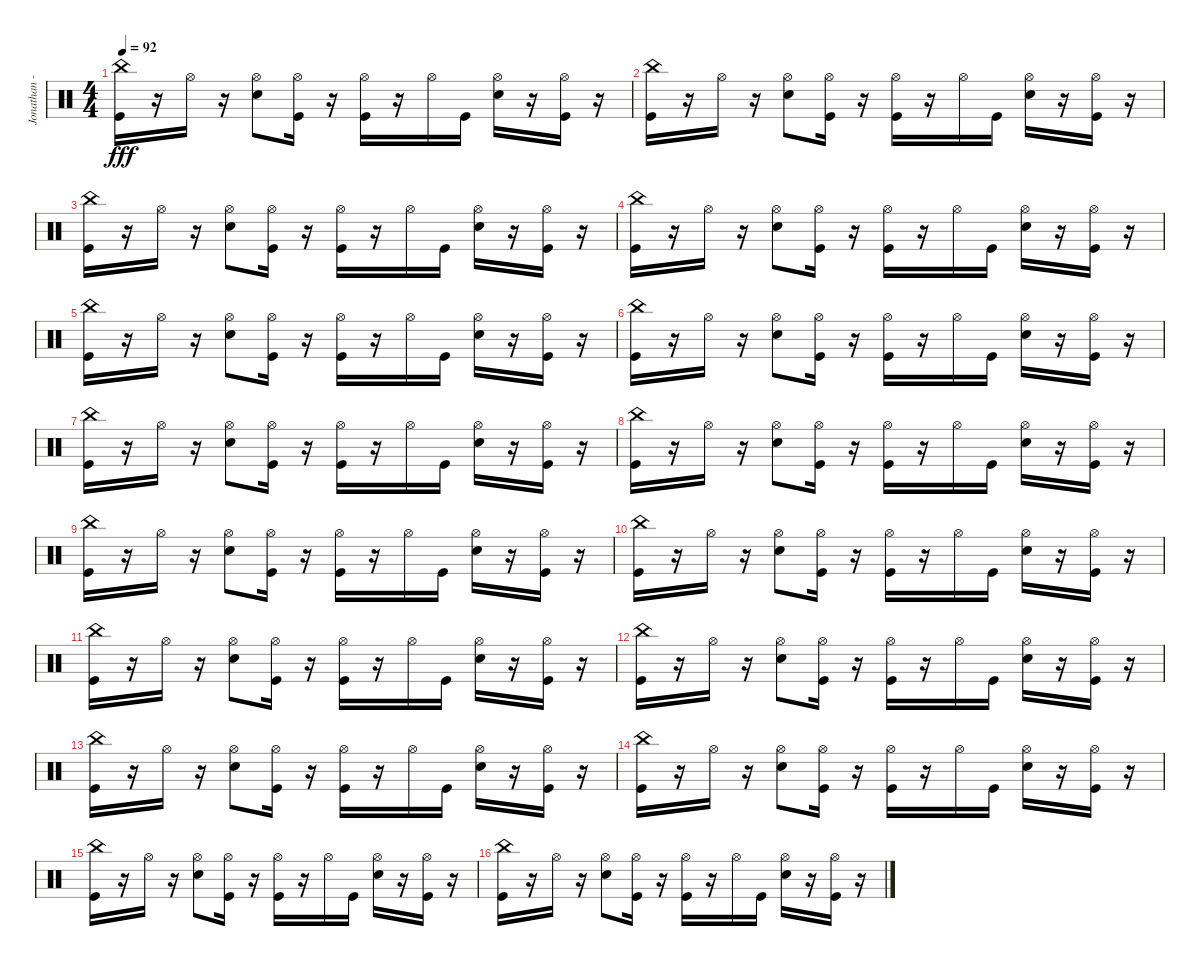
\track ("Jonathan - Drums" "Jonathan -") {instrument percussion}
\staff {score}
\articulation defaults
\ts (4 4)
\tempo 92
\clef neutral
\ks c
("China (hit)" "Kick (hit)").16{dy fff} r.16 "Hi-Hat (open)".16 r.16 ("Hi-Hat (open)" "Electric Snare (hit)").8 ("Hi-Hat (open)" "Kick (hit)").16 r.16 ("Hi-Hat (open)" "Kick (hit)").16 r.16 "Hi-Hat (open)".16 "Kick (hit)".16 ("Hi-Hat (open)" "Electric Snare (hit)").16 r.16 ("Hi-Hat (open)" "Kick (hit)").16 r.16 |
("China (hit)" "Kick (hit)").16 r.16 "Hi-Hat (open)".16 r.16 ("Electric Snare (hit)" "Hi-Hat (open)").8 ("Kick (hit)" "Hi-Hat (open)").16 r.16 ("Kick (hit)" "Hi-Hat (open)").16 r.16 "Hi-Hat (open)".16 "Kick (hit)".16 ("Electric Snare (hit)" "Hi-Hat (open)").16 r.16 ("Kick (hit)" "Hi-Hat (open)").16 r.16 |
("China (hit)" "Kick (hit)").16 r.16 "Hi-Hat (open)".16 r.16 ("Hi-Hat (open)" "Electric Snare (hit)").8 ("Hi-Hat (open)" "Kick (hit)").16 r.16 ("Hi-Hat (open)" "Kick (hit)").16 r.16 "Hi-Hat (open)".16 "Kick (hit)".16 ("Hi-Hat (open)" "Electric Snare (hit)").16 r.16 ("Hi-Hat (open)" "Kick (hit)").16 r.16 |
("China (hit)" "Kick (hit)").16 r.16 "Hi-Hat (open)".16 r.16 ("Electric Snare (hit)" "Hi-Hat (open)").8 ("Kick (hit)" "Hi-Hat (open)").16 r.16 ("Kick (hit)" "Hi-Hat (open)").16 r.16 "Hi-Hat (open)".16 "Kick (hit)".16 ("Electric Snare (hit)" "Hi-Hat (open)").16 r.16 ("Kick (hit)" "Hi-Hat (open)").16 r.16 |
("China (hit)" "Kick (hit)").16 r.16 "Hi-Hat (open)".16 r.16 ("Hi-Hat (open)" "Electric Snare (hit)").8 ("Hi-Hat (open)" "Kick (hit)").16 r.16 ("Hi-Hat (open)" "Kick (hit)").16 r.16 "Hi-Hat (open)".16 "Kick (hit)".16 ("Hi-Hat (open)" "Electric Snare (hit)").16 r.16 ("Hi-Hat (open)" "Kick (hit)").16 r.16 |
("China (hit)" "Kick (hit)").16 r.16 "Hi-Hat (open)".16 r.16 ("Electric Snare (hit)" "Hi-Hat (open)").8 ("Kick (hit)" "Hi-Hat (open)").16 r.16 ("Kick (hit)" "Hi-Hat (open)").16 r.16 "Hi-Hat (open)".16 "Kick (hit)".16 ("Electric Snare (hit)" "Hi-Hat (open)").16 r.16 ("Kick (hit)" "Hi-Hat (open)").16 r.16 |
("China (hit)" "Kick (hit)").16 r.16 "Hi-Hat (open)".16 r.16 ("Hi-Hat (open)" "Electric Snare (hit)").8 ("Hi-Hat (open)" "Kick (hit)").16 r.16 ("Hi-Hat (open)" "Kick (hit)").16 r.16 "Hi-Hat (open)".16 "Kick (hit)".16 ("Hi-Hat (open)" "Electric Snare (hit)").16 r.16 ("Hi-Hat (open)" "Kick (hit)").16 r.16 |
("China (hit)" "Kick (hit)").16 r.16 "Hi-Hat (open)".16 r.16 ("Electric Snare (hit)" "Hi-Hat (open)").8 ("Kick (hit)" "Hi-Hat (open)").16 r.16 ("Kick (hit)" "Hi-Hat (open)").16 r.16 "Hi-Hat (open)".16 "Kick (hit)".16 ("Electric Snare (hit)" "Hi-Hat (open)").16 r.16 ("Kick (hit)" "Hi-Hat (open)").16 r.16 |
("China (hit)" "Kick (hit)").16 r.16 "Hi-Hat (open)".16 r.16 ("Hi-Hat (open)" "Electric Snare (hit)").8 ("Hi-Hat (open)" "Kick (hit)").16 r.16 ("Hi-Hat (open)" "Kick (hit)").16 r.16 "Hi-Hat (open)".16 "Kick (hit)".16 ("Hi-Hat (open)" "Electric Snare (hit)").16 r.16 ("Hi-Hat (open)" "Kick (hit)").16 r.16 |
("China (hit)" "Kick (hit)").16 r.16 "Hi-Hat (open)".16 r.16 ("Electric Snare (hit)" "Hi-Hat (open)").8 ("Kick (hit)" "Hi-Hat (open)").16 r.16 ("Kick (hit)" "Hi-Hat (open)").16 r.16 "Hi-Hat (open)".16 "Kick (hit)".16 ("Electric Snare (hit)" "Hi-Hat (open)").16 r.16 ("Kick (hit)" "Hi-Hat (open)").16 r.16 |
("China (hit)" "Kick (hit)").16 r.16 "Hi-Hat (open)".16 r.16 ("Hi-Hat (open)" "Electric Snare (hit)").8 ("Hi-Hat (open)" "Kick (hit)").16 r.16 ("Hi-Hat (open)" "Kick (hit)").16 r.16 "Hi-Hat (open)".16 "Kick (hit)".16 ("Hi-Hat (open)" "Electric Snare (hit)").16 r.16 ("Hi-Hat (open)" "Kick (hit)").16 r.16 |
("China (hit)" "Kick (hit)").16 r.16 "Hi-Hat (open)".16 r.16 ("Electric Snare (hit)" "Hi-Hat (open)").8 ("Kick (hit)" "Hi-Hat (open)").16 r.16 ("Kick (hit)" "Hi-Hat (open)").16 r.16 "Hi-Hat (open)".16 "Kick (hit)".16 ("Electric Snare (hit)" "Hi-Hat (open)").16 r.16 ("Kick (hit)" "Hi-Hat (open)").16 r.16 |
("China (hit)" "Kick (hit)").16 r.16 "Hi-Hat (open)".16 r.16 ("Hi-Hat (open)" "Electric Snare (hit)").8 ("Hi-Hat (open)" "Kick (hit)").16 r.16 ("Hi-Hat (open)" "Kick (hit)").16 r.16 "Hi-Hat (open)".16 "Kick (hit)".16 ("Hi-Hat (open)" "Electric Snare (hit)").16 r.16 ("Hi-Hat (open)" "Kick (hit)").16 r.16 |
("China (hit)" "Kick (hit)").16{volume 15} r.16 "Hi-Hat (open)".16{volume 16} r.16 ("Electric Snare (hit)" "Hi-Hat (open)").8{volume 15} ("Kick (hit)" "Hi-Hat (open)").16{volume 14} r.16 ("Kick (hit)" "Hi-Hat (open)").16{volume 14} r.16 "Hi-Hat (open)".16{volume 14} "Kick (hit)".16{volume 13} ("Electric Snare (hit)" "Hi-Hat (open)").16{volume 13} r.16 ("Kick (hit)" "Hi-Hat (open)").16{volume 12} r.16 |
("China (hit)" "Kick (hit)").16{volume 12} r.16 "Hi-Hat (open)".16{volume 12} r.16 ("Hi-Hat (open)" "Electric Snare (hit)").8{volume 11} ("Hi-Hat (open)" "Kick (hit)").16{volume 10} r.16 ("Hi-Hat (open)" "Kick (hit)").16{volume 10} r.16 "Hi-Hat (open)".16{volume 10} "Kick (hit)".16{volume 9} ("Hi-Hat (open)" "Electric Snare (hit)").16{volume 9} r.16 ("Hi-Hat (open)" "Kick (hit)").16{volume 8} r.16 |
("China (hit)" "Kick (hit)").16{volume 8} r.16 "Hi-Hat (open)".16{volume 8} r.16 ("Electric Snare (hit)" "Hi-Hat (open)").8{volume 7} ("Kick (hit)" "Hi-Hat (open)").16{volume 6} r.16 ("Kick (hit)" "Hi-Hat (open)").16{volume 6} r.16 "Hi-Hat (open)".16{volume 6} "Kick (hit)".16{volume 5} ("Electric Snare (hit)" "Hi-Hat (open)").16{volume 5} r.16 ("Kick (hit)" "Hi-Hat (open)").16{volume 4} r.16
